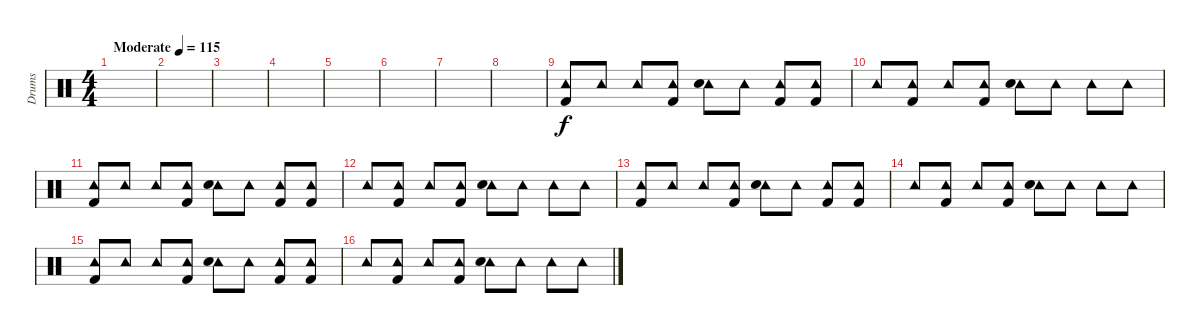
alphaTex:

\track ("Drums" "Drums") {instrument percussion}
\staff {score}
\articulation defaults
\ts (4 4)
\tempo (115 "Moderate")
\clef neutral
\ks c
|
|
|
|
|
|
|
|
("Tambourine (hit)" "Kick (hit) 2").8 "Tambourine (hit)".8 "Tambourine (hit)".8 ("Tambourine (hit)" "Kick (hit) 2").8 ("Tambourine (hit)" "Snare (hit) 2").8 "Tambourine (hit)".8 ("Tambourine (hit)" "Kick (hit) 2").8 ("Tambourine (hit)" "Kick (hit) 2").8 |
"Tambourine (hit)".8 ("Tambourine (hit)" "Kick (hit) 2").8 "Tambourine (hit)".8 ("Tambourine (hit)" "Kick (hit) 2").8 ("Tambourine (hit)" "Snare (hit) 2").8 "Tambourine (hit)".8 "Tambourine (hit)".8 "Tambourine (hit)".8 |
("Tambourine (hit)" "Kick (hit) 2").8 "Tambourine (hit)".8 "Tambourine (hit)".8 ("Tambourine (hit)" "Kick (hit) 2").8 ("Tambourine (hit)" "Snare (hit) 2").8 "Tambourine (hit)".8 ("Tambourine (hit)" "Kick (hit) 2").8 ("Tambourine (hit)" "Kick (hit) 2").8 |
"Tambourine (hit)".8 ("Tambourine (hit)" "Kick (hit) 2").8 "Tambourine (hit)".8 ("Tambourine (hit)" "Kick (hit) 2").8 ("Tambourine (hit)" "Snare (hit) 2").8 "Tambourine (hit)".8 "Tambourine (hit)".8 "Tambourine (hit)".8 |
("Tambourine (hit)" "Kick (hit) 2").8 "Tambourine (hit)".8 "Tambourine (hit)".8 ("Tambourine (hit)" "Kick (hit) 2").8 ("Tambourine (hit)" "Snare (hit) 2").8 "Tambourine (hit)".8 ("Tambourine (hit)" "Kick (hit) 2").8 ("Tambourine (hit)" "Kick (hit) 2").8 |
"Tambourine (hit)".8 ("Tambourine (hit)" "Kick (hit) 2").8 "Tambourine (hit)".8 ("Tambourine (hit)" "Kick (hit) 2").8 ("Tambourine (hit)" "Snare (hit) 2").8 "Tambourine (hit)".8 "Tambourine (hit)".8 "Tambourine (hit)".8 |
("Tambourine (hit)" "Kick (hit) 2").8 "Tambourine (hit)".8 "Tambourine (hit)".8 ("Tambourine (hit)" "Kick (hit) 2").8 ("Tambourine (hit)" "Snare (hit) 2").8 "Tambourine (hit)".8 ("Tambourine (hit)" "Kick (hit) 2").8 ("Tambourine (hit)" "Kick (hit) 2").8 |
"Tambourine (hit)".8 ("Tambourine (hit)" "Kick (hit) 2").8 "Tambourine (hit)".8 ("Tambourine (hit)" "Kick (hit) 2").8 ("Tambourine (hit)" "Snare (hit) 2").8 "Tambourine (hit)".8 "Tambourine (hit)".8 "Tambourine (hit)".8
